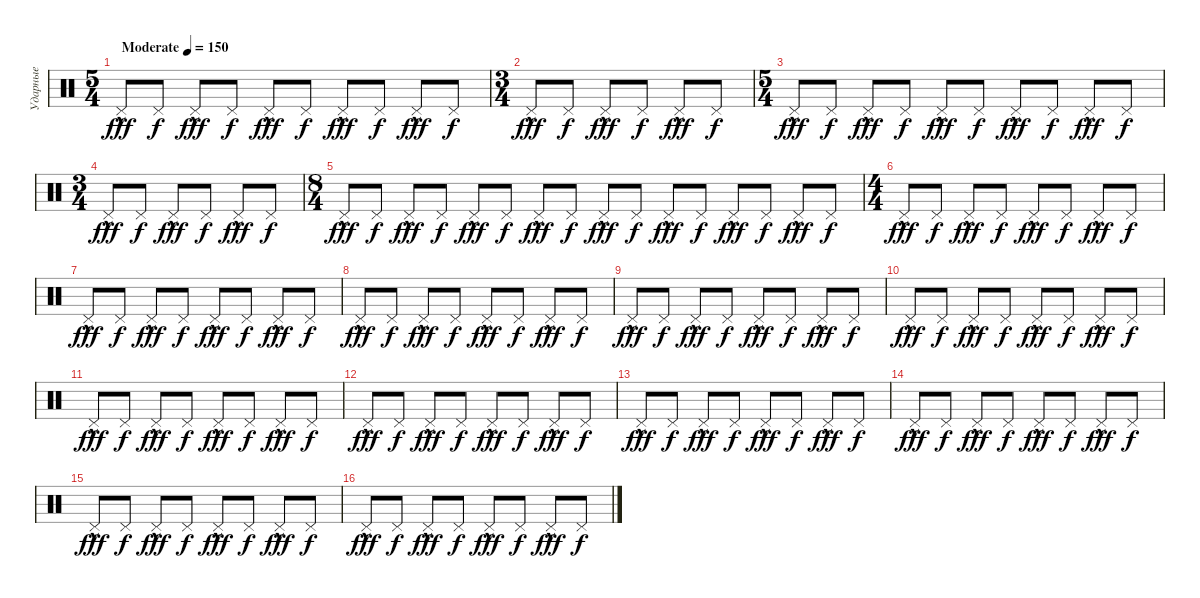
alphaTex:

\track ("Ударные" "Ударные") {instrument percussion}
\staff {score}
\articulation defaults
\ts (5 4)
\tempo (150 "Moderate")
\clef neutral
\ks c "Pedal Hi-Hat (hit)"{hac}.8{dy fff} "Pedal Hi-Hat (hit)".8{dy f} "Pedal Hi-Hat (hit)"{hac}.8{dy fff} "Pedal Hi-Hat (hit)".8{dy f} "Pedal Hi-Hat (hit)"{hac}.8{dy fff} "Pedal Hi-Hat (hit)".8{dy f} "Pedal Hi-Hat (hit)"{hac}.8{dy fff} "Pedal Hi-Hat (hit)".8{dy f} "Pedal Hi-Hat (hit)"{hac}.8{dy fff} "Pedal Hi-Hat (hit)".8{dy f}
|
\ts (3 4)
"Pedal Hi-Hat (hit)"{hac}.8{dy fff} "Pedal Hi-Hat (hit)".8{dy f} "Pedal Hi-Hat (hit)"{hac}.8{dy fff} "Pedal Hi-Hat (hit)".8{dy f} "Pedal Hi-Hat (hit)"{hac}.8{dy fff} "Pedal Hi-Hat (hit)".8{dy f} |
\ts (5 4)
"Pedal Hi-Hat (hit)"{hac}.8{dy fff} "Pedal Hi-Hat (hit)".8{dy f} "Pedal Hi-Hat (hit)"{hac}.8{dy fff} "Pedal Hi-Hat (hit)".8{dy f} "Pedal Hi-Hat (hit)"{hac}.8{dy fff} "Pedal Hi-Hat (hit)".8{dy f} "Pedal Hi-Hat (hit)"{hac}.8{dy fff} "Pedal Hi-Hat (hit)".8{dy f} "Pedal Hi-Hat (hit)"{hac}.8{dy fff} "Pedal Hi-Hat (hit)".8{dy f} |
\ts (3 4)
"Pedal Hi-Hat (hit)"{hac}.8{dy fff} "Pedal Hi-Hat (hit)".8{dy f} "Pedal Hi-Hat (hit)"{hac}.8{dy fff} "Pedal Hi-Hat (hit)".8{dy f} "Pedal Hi-Hat (hit)"{hac}.8{dy fff} "Pedal Hi-Hat (hit)".8{dy f} |
\ts (8 4)
"Pedal Hi-Hat (hit)"{hac}.8{dy fff} "Pedal Hi-Hat (hit)".8{dy f} "Pedal Hi-Hat (hit)"{hac}.8{dy fff} "Pedal Hi-Hat (hit)".8{dy f} "Pedal Hi-Hat (hit)"{hac}.8{dy fff} "Pedal Hi-Hat (hit)".8{dy f} "Pedal Hi-Hat (hit)"{hac}.8{dy fff} "Pedal Hi-Hat (hit)".8{dy f} "Pedal Hi-Hat (hit)"{hac}.8{dy fff} "Pedal Hi-Hat (hit)".8{dy f} "Pedal Hi-Hat (hit)"{hac}.8{dy fff} "Pedal Hi-Hat (hit)".8{dy f} "Pedal Hi-Hat (hit)"{hac}.8{dy fff} "Pedal Hi-Hat (hit)".8{dy f} "Pedal Hi-Hat (hit)"{hac}.8{dy fff} "Pedal Hi-Hat (hit)".8{dy f} |
\ts (4 4)
"Pedal Hi-Hat (hit)"{hac}.8{dy fff} "Pedal Hi-Hat (hit)".8{dy f} "Pedal Hi-Hat (hit)"{hac}.8{dy fff} "Pedal Hi-Hat (hit)".8{dy f} "Pedal Hi-Hat (hit)"{hac}.8{dy fff} "Pedal Hi-Hat (hit)".8{dy f} "Pedal Hi-Hat (hit)"{hac}.8{dy fff} "Pedal Hi-Hat (hit)".8{dy f} |
"Pedal Hi-Hat (hit)"{hac}.8{dy fff} "Pedal Hi-Hat (hit)".8{dy f} "Pedal Hi-Hat (hit)"{hac}.8{dy fff} "Pedal Hi-Hat (hit)".8{dy f} "Pedal Hi-Hat (hit)"{hac}.8{dy fff} "Pedal Hi-Hat (hit)".8{dy f} "Pedal Hi-Hat (hit)"{hac}.8{dy fff} "Pedal Hi-Hat (hit)".8{dy f} |
"Pedal Hi-Hat (hit)"{hac}.8{dy fff} "Pedal Hi-Hat (hit)".8{dy f} "Pedal Hi-Hat (hit)"{hac}.8{dy fff} "Pedal Hi-Hat (hit)".8{dy f} "Pedal Hi-Hat (hit)"{hac}.8{dy fff} "Pedal Hi-Hat (hit)".8{dy f} "Pedal Hi-Hat (hit)"{hac}.8{dy fff} "Pedal Hi-Hat (hit)".8{dy f} |
"Pedal Hi-Hat (hit)"{hac}.8{dy fff} "Pedal Hi-Hat (hit)".8{dy f} "Pedal Hi-Hat (hit)"{hac}.8{dy fff} "Pedal Hi-Hat (hit)".8{dy f} "Pedal Hi-Hat (hit)"{hac}.8{dy fff} "Pedal Hi-Hat (hit)".8{dy f} "Pedal Hi-Hat (hit)"{hac}.8{dy fff} "Pedal Hi-Hat (hit)".8{dy f} |
"Pedal Hi-Hat (hit)"{hac}.8{dy fff} "Pedal Hi-Hat (hit)".8{dy f} "Pedal Hi-Hat (hit)"{hac}.8{dy fff} "Pedal Hi-Hat (hit)".8{dy f} "Pedal Hi-Hat (hit)"{hac}.8{dy fff} "Pedal Hi-Hat (hit)".8{dy f} "Pedal Hi-Hat (hit)"{hac}.8{dy fff} "Pedal Hi-Hat (hit)".8{dy f} |
"Pedal Hi-Hat (hit)"{hac}.8{dy fff} "Pedal Hi-Hat (hit)".8{dy f} "Pedal Hi-Hat (hit)"{hac}.8{dy fff} "Pedal Hi-Hat (hit)".8{dy f} "Pedal Hi-Hat (hit)"{hac}.8{dy fff} "Pedal Hi-Hat (hit)".8{dy f} "Pedal Hi-Hat (hit)"{hac}.8{dy fff} "Pedal Hi-Hat (hit)".8{dy f} |
"Pedal Hi-Hat (hit)"{hac}.8{dy fff} "Pedal Hi-Hat (hit)".8{dy f} "Pedal Hi-Hat (hit)"{hac}.8{dy fff} "Pedal Hi-Hat (hit)".8{dy f} "Pedal Hi-Hat (hit)"{hac}.8{dy fff} "Pedal Hi-Hat (hit)".8{dy f} "Pedal Hi-Hat (hit)"{hac}.8{dy fff} "Pedal Hi-Hat (hit)".8{dy f} |
"Pedal Hi-Hat (hit)"{hac}.8{dy fff} "Pedal Hi-Hat (hit)".8{dy f} "Pedal Hi-Hat (hit)"{hac}.8{dy fff} "Pedal Hi-Hat (hit)".8{dy f} "Pedal Hi-Hat (hit)"{hac}.8{dy fff} "Pedal Hi-Hat (hit)".8{dy f} "Pedal Hi-Hat (hit)"{hac}.8{dy fff} "Pedal Hi-Hat (hit)".8{dy f} |
"Pedal Hi-Hat (hit)"{hac}.8{dy fff} "Pedal Hi-Hat (hit)".8{dy f} "Pedal Hi-Hat (hit)"{hac}.8{dy fff} "Pedal Hi-Hat (hit)".8{dy f} "Pedal Hi-Hat (hit)"{hac}.8{dy fff} "Pedal Hi-Hat (hit)".8{dy f} "Pedal Hi-Hat (hit)"{hac}.8{dy fff} "Pedal Hi-Hat (hit)".8{dy f} |
"Pedal Hi-Hat (hit)"{hac}.8{dy fff} "Pedal Hi-Hat (hit)".8{dy f} "Pedal Hi-Hat (hit)"{hac}.8{dy fff} "Pedal Hi-Hat (hit)".8{dy f} "Pedal Hi-Hat (hit)"{hac}.8{dy fff} "Pedal Hi-Hat (hit)".8{dy f} "Pedal Hi-Hat (hit)"{hac}.8{dy fff} "Pedal Hi-Hat (hit)".8{dy f} |
"Pedal Hi-Hat (hit)"{hac}.8{dy fff} "Pedal Hi-Hat (hit)".8{dy f} "Pedal Hi-Hat (hit)"{hac}.8{dy fff} "Pedal Hi-Hat (hit)".8{dy f} "Pedal Hi-Hat (hit)"{hac}.8{dy fff} "Pedal Hi-Hat (hit)".8{dy f} "Pedal Hi-Hat (hit)"{hac}.8{dy fff} "Pedal Hi-Hat (hit)".8{dy f}
